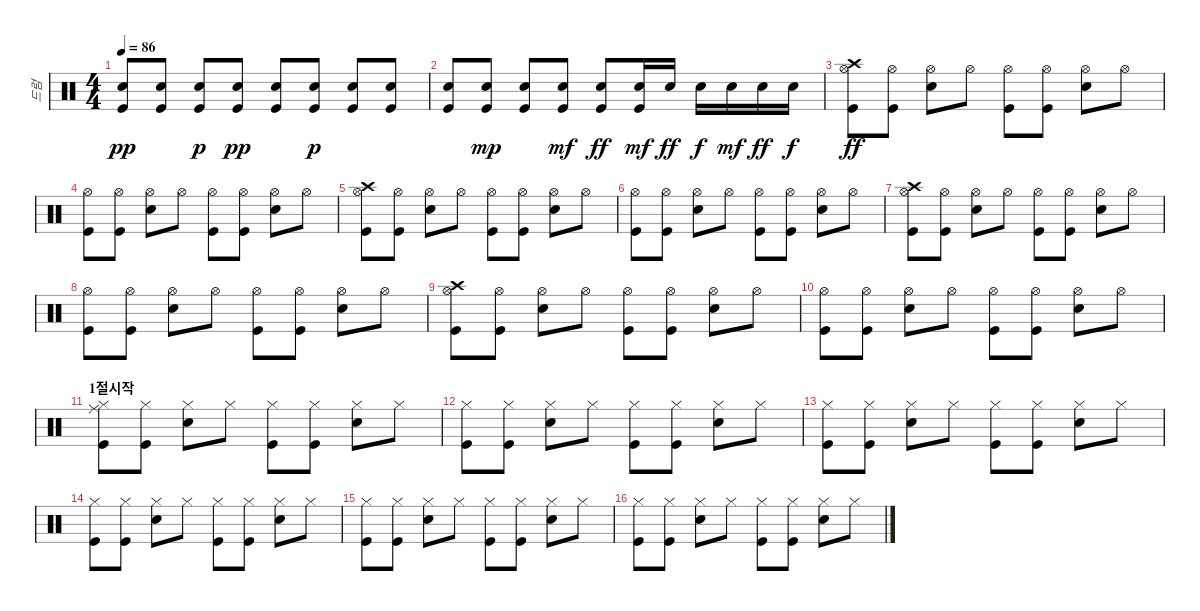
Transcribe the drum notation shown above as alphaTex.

\track ("드럼" "드럼") {instrument percussion}
\staff {score}
\articulation defaults
\ts (4 4)
\tempo 86
\clef neutral
\ks c
("Electric Snare (hit)" "Kick (hit)").8{dy pp} ("Electric Snare (hit)" "Kick (hit)").8 ("Electric Snare (hit)" "Kick (hit)").8{dy p} ("Electric Snare (hit)" "Kick (hit)").8{dy pp} ("Electric Snare (hit)" "Kick (hit)").8 ("Electric Snare (hit)" "Kick (hit)").8{dy p} ("Kick (hit)" "Electric Snare (hit)").8 ("Electric Snare (hit)" "Kick (hit)").8 |
("Electric Snare (hit)" "Kick (hit)").8 ("Electric Snare (hit)" "Kick (hit)").8{dy mp} ("Electric Snare (hit)" "Kick (hit)").8 ("Electric Snare (hit)" "Kick (hit)").8{dy mf} ("Electric Snare (hit)" "Kick (hit)").8{dy ff} ("Electric Snare (hit)" "Kick (hit)").16{dy mf} "Electric Snare (hit)".16{dy ff} "Electric Snare (hit)".16{dy f} "Electric Snare (hit)".16{dy mf} "Electric Snare (hit)".16{dy ff} "Electric Snare (hit)".16{dy f} |
("Crash high (hit)" "Kick (hit)" "Hi-Hat (open)").8{dy ff} ("Hi-Hat (open)" "Kick (hit)").8 ("Electric Snare (hit)" "Hi-Hat (open)").8 "Hi-Hat (open)".8 ("Hi-Hat (open)" "Kick (hit)").8 ("Hi-Hat (open)" "Kick (hit)").8 ("Hi-Hat (open)" "Electric Snare (hit)").8 "Hi-Hat (open)".8 |
("Kick (hit)" "Hi-Hat (open)").8 ("Kick (hit)" "Hi-Hat (open)").8 ("Hi-Hat (open)" "Electric Snare (hit)").8 "Hi-Hat (open)".8 ("Hi-Hat (open)" "Kick (hit)").8 ("Hi-Hat (open)" "Kick (hit)").8 ("Electric Snare (hit)" "Hi-Hat (open)").8 "Hi-Hat (open)".8 |
("Kick (hit)" "Hi-Hat (open)" "Crash high (hit)").8 ("Kick (hit)" "Hi-Hat (open)").8 ("Hi-Hat (open)" "Electric Snare (hit)").8 "Hi-Hat (open)".8 ("Hi-Hat (open)" "Kick (hit)").8 ("Hi-Hat (open)" "Kick (hit)").8 ("Hi-Hat (open)" "Electric Snare (hit)").8 "Hi-Hat (open)".8 |
("Hi-Hat (open)" "Kick (hit)").8 ("Hi-Hat (open)" "Kick (hit)").8 ("Hi-Hat (open)" "Electric Snare (hit)").8 "Hi-Hat (open)".8 ("Hi-Hat (open)" "Kick (hit)").8 ("Hi-Hat (open)" "Kick (hit)").8 ("Hi-Hat (open)" "Electric Snare (hit)").8 "Hi-Hat (open)".8 |
("Crash high (hit)" "Kick (hit)" "Hi-Hat (open)").8 ("Hi-Hat (open)" "Kick (hit)").8 ("Electric Snare (hit)" "Hi-Hat (open)").8 "Hi-Hat (open)".8 ("Hi-Hat (open)" "Kick (hit)").8 ("Hi-Hat (open)" "Kick (hit)").8 ("Hi-Hat (open)" "Electric Snare (hit)").8 "Hi-Hat (open)".8 |
("Kick (hit)" "Hi-Hat (open)").8 ("Kick (hit)" "Hi-Hat (open)").8 ("Hi-Hat (open)" "Electric Snare (hit)").8 "Hi-Hat (open)".8 ("Hi-Hat (open)" "Kick (hit)").8 ("Hi-Hat (open)" "Kick (hit)").8 ("Electric Snare (hit)" "Hi-Hat (open)").8 "Hi-Hat (open)".8 |
("Kick (hit)" "Hi-Hat (open)" "Crash high (hit)").8 ("Kick (hit)" "Hi-Hat (open)").8 ("Hi-Hat (open)" "Electric Snare (hit)").8 "Hi-Hat (open)".8 ("Hi-Hat (open)" "Kick (hit)").8 ("Hi-Hat (open)" "Kick (hit)").8 ("Hi-Hat (open)" "Electric Snare (hit)").8 "Hi-Hat (open)".8 |
("Hi-Hat (open)" "Kick (hit)").8 ("Hi-Hat (open)" "Kick (hit)").8 ("Hi-Hat (open)" "Electric Snare (hit)").8 "Hi-Hat (open)".8 ("Hi-Hat (open)" "Kick (hit)").8 ("Hi-Hat (open)" "Kick (hit)").8 ("Hi-Hat (open)" "Electric Snare (hit)").8 "Hi-Hat (open)".8 |
\section ("" "1절시작")
("Hi-Hat (closed)" "Ride (middle)" "Kick (hit)").8 ("Hi-Hat (closed)" "Kick (hit)").8 ("Hi-Hat (closed)" "Electric Snare (hit)").8 "Hi-Hat (closed)".8 ("Hi-Hat (closed)" "Kick (hit)").8 ("Hi-Hat (closed)" "Kick (hit)").8 ("Hi-Hat (closed)" "Electric Snare (hit)").8 "Hi-Hat (closed)".8 |
("Hi-Hat (closed)" "Kick (hit)").8 ("Hi-Hat (closed)" "Kick (hit)").8 ("Hi-Hat (closed)" "Electric Snare (hit)").8 "Hi-Hat (closed)".8 ("Hi-Hat (closed)" "Kick (hit)").8 ("Hi-Hat (closed)" "Kick (hit)").8 ("Hi-Hat (closed)" "Electric Snare (hit)").8 "Hi-Hat (closed)".8 |
("Hi-Hat (closed)" "Kick (hit)").8 ("Hi-Hat (closed)" "Kick (hit)").8 ("Hi-Hat (closed)" "Electric Snare (hit)").8 "Hi-Hat (closed)".8 ("Hi-Hat (closed)" "Kick (hit)").8 ("Hi-Hat (closed)" "Kick (hit)").8 ("Hi-Hat (closed)" "Electric Snare (hit)").8 "Hi-Hat (closed)".8 |
("Hi-Hat (closed)" "Kick (hit)").8 ("Hi-Hat (closed)" "Kick (hit)").8 ("Hi-Hat (closed)" "Electric Snare (hit)").8 "Hi-Hat (closed)".8 ("Hi-Hat (closed)" "Kick (hit)").8 ("Hi-Hat (closed)" "Kick (hit)").8 ("Hi-Hat (closed)" "Electric Snare (hit)").8 "Hi-Hat (closed)".8 |
("Hi-Hat (closed)" "Kick (hit)").8 ("Hi-Hat (closed)" "Kick (hit)").8 ("Hi-Hat (closed)" "Electric Snare (hit)").8 "Hi-Hat (closed)".8 ("Hi-Hat (closed)" "Kick (hit)").8 ("Hi-Hat (closed)" "Kick (hit)").8 ("Hi-Hat (closed)" "Electric Snare (hit)").8 "Hi-Hat (closed)".8 |
("Hi-Hat (closed)" "Kick (hit)").8 ("Hi-Hat (closed)" "Kick (hit)").8 ("Hi-Hat (closed)" "Electric Snare (hit)").8 "Hi-Hat (closed)".8 ("Hi-Hat (closed)" "Kick (hit)").8 ("Hi-Hat (closed)" "Kick (hit)").8 ("Hi-Hat (closed)" "Electric Snare (hit)").8 "Hi-Hat (closed)".8
